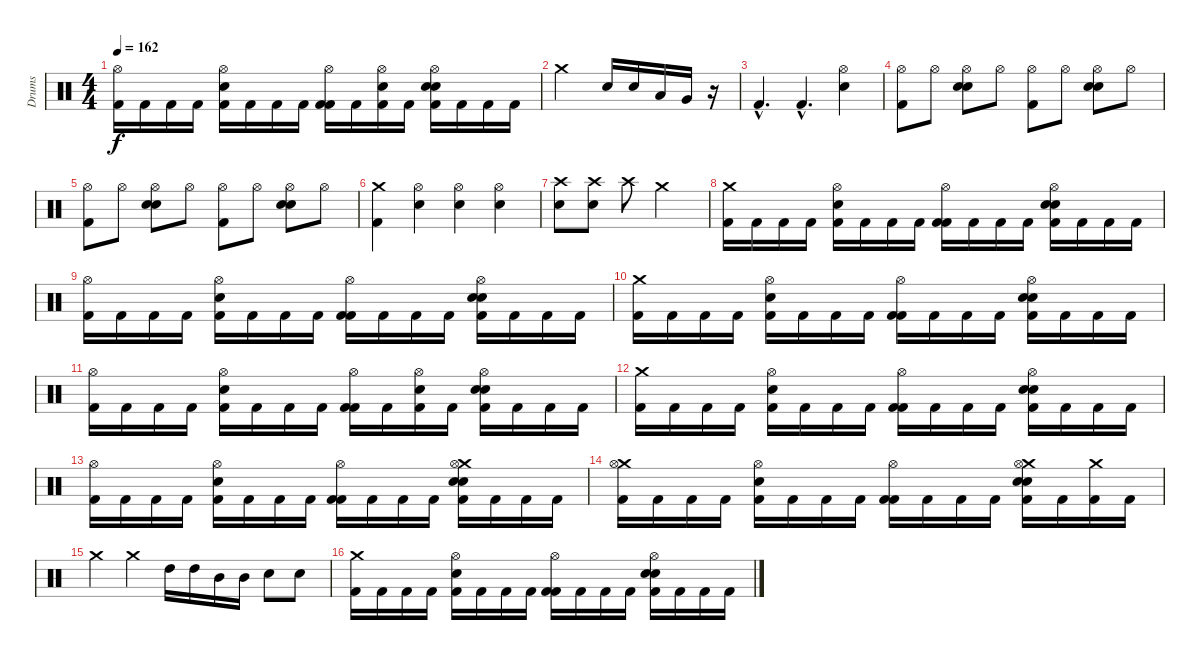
\track ("Drums" "Drums") {instrument percussion}
\staff {score}
\articulation defaults
\ts (4 4)
\tempo 162
\clef neutral
\ks c
("Hi-Hat (open)" "Kick (hit) 2").16{dy f} "Kick (hit) 2".16 "Kick (hit) 2".16 "Kick (hit) 2".16 ("Kick (hit) 2" "Electric Snare (hit)" "Hi-Hat (open)").16 "Kick (hit) 2".16 "Kick (hit) 2".16 "Kick (hit) 2".16 ("Kick (hit) 2" "Hi-Hat (open)" "Kick (hit) 2").16 "Kick (hit) 2".16 ("Kick (hit) 2" "Electric Snare (hit)" "Hi-Hat (open)").16 "Kick (hit) 2".16 ("Kick (hit) 2" "Electric Snare (hit)" "Hi-Hat (open)" "Snare (hit) 2").16 "Kick (hit) 2".16 "Kick (hit) 2".16 "Kick (hit) 2".16 |
"Crash medium (hit)".2 "Electric Snare (hit)".16 "Electric Snare (hit)".16 "Low Tom (hit)".16 "Very Low Tom (hit)".16 r.16 |
"Kick (hit) 2"{hac}.4{d} "Kick (hit) 2"{hac}.4{d} ("Hi-Hat (open)" "Electric Snare (hit)").4 |
("Hi-Hat (open)" "Kick (hit) 2").8 "Hi-Hat (open)".8 ("Electric Snare (hit)" "Hi-Hat (open)" "Snare (hit) 2").8 "Hi-Hat (open)".8 ("Hi-Hat (open)" "Kick (hit) 2").8 "Hi-Hat (open)".8 ("Electric Snare (hit)" "Hi-Hat (open)" "Snare (hit) 2").8 "Hi-Hat (open)".8 |
("Hi-Hat (open)" "Kick (hit) 2").8 "Hi-Hat (open)".8 ("Electric Snare (hit)" "Hi-Hat (open)" "Snare (hit) 2").8 "Hi-Hat (open)".8 ("Hi-Hat (open)" "Kick (hit) 2").8 "Hi-Hat (open)".8 ("Electric Snare (hit)" "Hi-Hat (open)" "Snare (hit) 2").8 "Hi-Hat (open)".8 |
("Crash medium (hit)" "Kick (hit) 2").4 ("Electric Snare (hit)" "Hi-Hat (open)").4 ("Hi-Hat (open)" "Snare (hit) 2").4 ("Electric Snare (hit)" "Hi-Hat (open)").4 |
("Crash high (hit)" "Electric Snare (hit)").8 ("Crash high (hit)" "Electric Snare (hit)").8 "Crash high (hit)".8 "Crash medium (hit)".2 |
("Crash medium (hit)" "Kick (hit) 2").16 "Kick (hit) 2".16 "Kick (hit) 2".16 "Kick (hit) 2".16 ("Kick (hit) 2" "Electric Snare (hit)" "Hi-Hat (open)").16 "Kick (hit) 2".16 "Kick (hit) 2".16 "Kick (hit) 2".16 ("Kick (hit) 2" "Hi-Hat (open)" "Kick (hit) 2").16 "Kick (hit) 2".16 "Kick (hit) 2".16 "Kick (hit) 2".16 ("Kick (hit) 2" "Electric Snare (hit)" "Hi-Hat (open)" "Snare (hit) 2").16 "Kick (hit) 2".16 "Kick (hit) 2".16 "Kick (hit) 2".16 |
("Hi-Hat (open)" "Kick (hit) 2").16 "Kick (hit) 2".16 "Kick (hit) 2".16 "Kick (hit) 2".16 ("Kick (hit) 2" "Electric Snare (hit)" "Hi-Hat (open)").16 "Kick (hit) 2".16 "Kick (hit) 2".16 "Kick (hit) 2".16 ("Kick (hit) 2" "Hi-Hat (open)" "Kick (hit) 2").16 "Kick (hit) 2".16 "Kick (hit) 2".16 "Kick (hit) 2".16 ("Kick (hit) 2" "Electric Snare (hit)" "Hi-Hat (open)" "Snare (hit) 2").16 "Kick (hit) 2".16 "Kick (hit) 2".16 "Kick (hit) 2".16 |
("Crash medium (hit)" "Kick (hit) 2").16 "Kick (hit) 2".16 "Kick (hit) 2".16 "Kick (hit) 2".16 ("Kick (hit) 2" "Electric Snare (hit)" "Hi-Hat (open)").16 "Kick (hit) 2".16 "Kick (hit) 2".16 "Kick (hit) 2".16 ("Kick (hit) 2" "Hi-Hat (open)" "Kick (hit) 2").16 "Kick (hit) 2".16 "Kick (hit) 2".16 "Kick (hit) 2".16 ("Kick (hit) 2" "Electric Snare (hit)" "Hi-Hat (open)" "Snare (hit) 2").16 "Kick (hit) 2".16 "Kick (hit) 2".16 "Kick (hit) 2".16 |
("Hi-Hat (open)" "Kick (hit) 2").16 "Kick (hit) 2".16 "Kick (hit) 2".16 "Kick (hit) 2".16 ("Kick (hit) 2" "Electric Snare (hit)" "Hi-Hat (open)").16 "Kick (hit) 2".16 "Kick (hit) 2".16 "Kick (hit) 2".16 ("Kick (hit) 2" "Hi-Hat (open)" "Kick (hit) 2").16 "Kick (hit) 2".16 ("Kick (hit) 2" "Electric Snare (hit)" "Hi-Hat (open)").16 "Kick (hit) 2".16 ("Kick (hit) 2" "Electric Snare (hit)" "Hi-Hat (open)" "Snare (hit) 2").16 "Kick (hit) 2".16 "Kick (hit) 2".16 "Kick (hit) 2".16 |
("Crash medium (hit)" "Kick (hit) 2").16 "Kick (hit) 2".16 "Kick (hit) 2".16 "Kick (hit) 2".16 ("Kick (hit) 2" "Electric Snare (hit)" "Hi-Hat (open)").16 "Kick (hit) 2".16 "Kick (hit) 2".16 "Kick (hit) 2".16 ("Kick (hit) 2" "Hi-Hat (open)" "Kick (hit) 2").16 "Kick (hit) 2".16 "Kick (hit) 2".16 "Kick (hit) 2".16 ("Kick (hit) 2" "Electric Snare (hit)" "Hi-Hat (open)" "Snare (hit) 2").16 "Kick (hit) 2".16 "Kick (hit) 2".16 "Kick (hit) 2".16 |
("Hi-Hat (open)" "Kick (hit) 2").16 "Kick (hit) 2".16 "Kick (hit) 2".16 "Kick (hit) 2".16 ("Kick (hit) 2" "Electric Snare (hit)" "Hi-Hat (open)").16 "Kick (hit) 2".16 "Kick (hit) 2".16 "Kick (hit) 2".16 ("Kick (hit) 2" "Hi-Hat (open)" "Kick (hit) 2").16 "Kick (hit) 2".16 "Kick (hit) 2".16 "Kick (hit) 2".16 ("Crash medium (hit)" "Kick (hit) 2" "Electric Snare (hit)" "Hi-Hat (open)" "Snare (hit) 2").16 "Kick (hit) 2".16 "Kick (hit) 2".16 "Kick (hit) 2".16 |
("Crash medium (hit)" "Hi-Hat (open)" "Kick (hit) 2").16 "Kick (hit) 2".16 "Kick (hit) 2".16 "Kick (hit) 2".16 ("Kick (hit) 2" "Electric Snare (hit)" "Hi-Hat (open)").16 "Kick (hit) 2".16 "Kick (hit) 2".16 "Kick (hit) 2".16 ("Kick (hit) 2" "Hi-Hat (open)" "Kick (hit) 2").16 "Kick (hit) 2".16 "Kick (hit) 2".16 "Kick (hit) 2".16 ("Crash medium (hit)" "Kick (hit) 2" "Electric Snare (hit)" "Hi-Hat (open)" "Snare (hit) 2").16 "Kick (hit) 2".16 ("Crash medium (hit)" "Kick (hit) 2").16 "Kick (hit) 2".16 |
"Crash medium (hit)".4 "Crash medium (hit)".4 "High Tom (hit)".16 "High Tom (hit)".16 "Mid Tom (hit)".16 "Mid Tom (hit)".16 "Electric Snare (hit)".8 "Electric Snare (hit)".8 |
("Crash medium (hit)" "Kick (hit) 2").16 "Kick (hit) 2".16 "Kick (hit) 2".16 "Kick (hit) 2".16 ("Kick (hit) 2" "Electric Snare (hit)" "Hi-Hat (open)").16 "Kick (hit) 2".16 "Kick (hit) 2".16 "Kick (hit) 2".16 ("Kick (hit) 2" "Hi-Hat (open)" "Kick (hit) 2").16 "Kick (hit) 2".16 "Kick (hit) 2".16 "Kick (hit) 2".16 ("Kick (hit) 2" "Electric Snare (hit)" "Hi-Hat (open)" "Snare (hit) 2").16 "Kick (hit) 2".16 "Kick (hit) 2".16 "Kick (hit) 2".16
